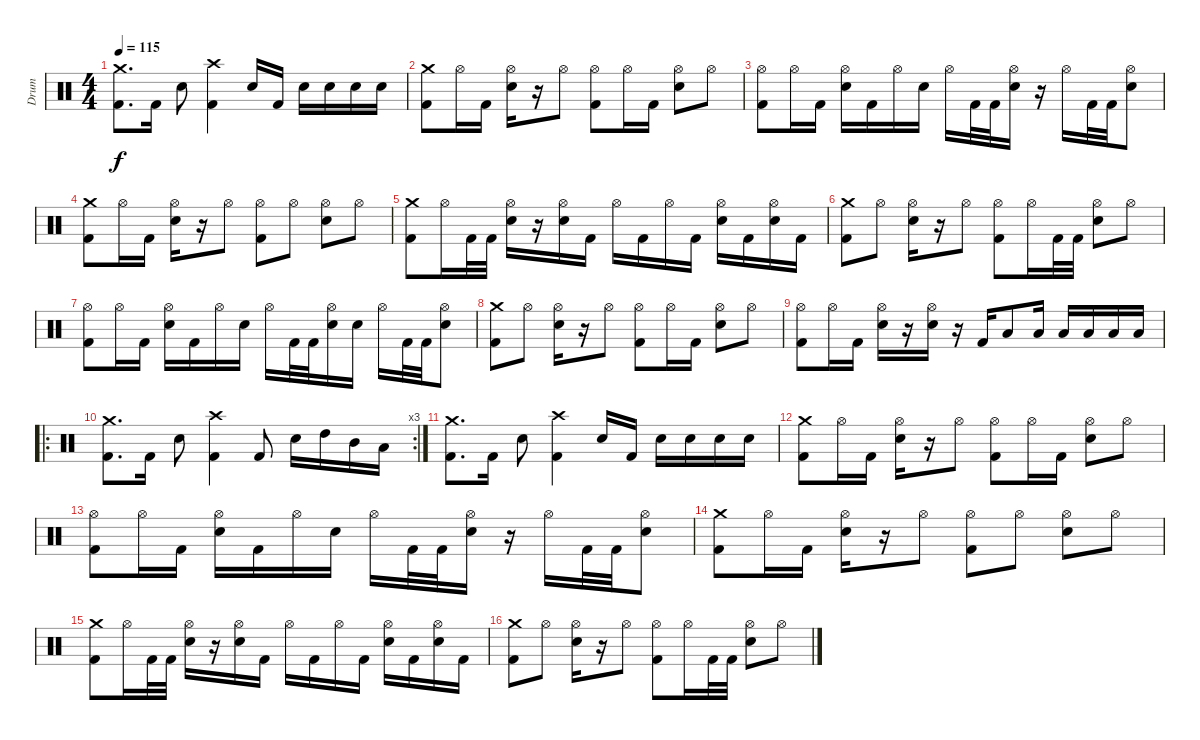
\track ("Drum" "Drum") {instrument percussion}
\staff {score}
\articulation defaults
\ts (4 4)
\tempo 115
\clef neutral
\ks c
("Crash medium (hit)" "Kick (hit) 2").8{d dy f} "Kick (hit) 2".16 "Snare (hit) 2".8 ("Crash high (hit)" "Kick (hit) 2").4 "Electric Snare (hit)".16 "Kick (hit) 2".16 "Electric Snare (hit)".16 "Electric Snare (hit)".16 "Electric Snare (hit)".16 "Electric Snare (hit)".16 |
("Crash medium (hit)" "Kick (hit) 2").8 "Hi-Hat (open)".16 "Kick (hit) 2".16 ("Hi-Hat (open)" "Electric Snare (hit)").16 r.16 "Hi-Hat (open)".8 ("Hi-Hat (open)" "Kick (hit) 2").8 "Hi-Hat (open)".16 "Kick (hit) 2".16 ("Hi-Hat (open)" "Electric Snare (hit)").8 "Hi-Hat (open)".8 |
("Hi-Hat (open)" "Kick (hit) 2").8 "Hi-Hat (open)".16 "Kick (hit) 2".16 ("Hi-Hat (open)" "Electric Snare (hit)").16 "Kick (hit) 2".16 "Hi-Hat (open)".16 "Electric Snare (hit)".16 "Hi-Hat (open)".16 "Kick (hit) 2".32 "Kick (hit) 2".32 ("Hi-Hat (open)" "Electric Snare (hit)").16 r.16 "Hi-Hat (open)".16 "Kick (hit) 2".32 "Kick (hit) 2".32 ("Hi-Hat (open)" "Electric Snare (hit)").8 |
("Crash medium (hit)" "Kick (hit) 2").8 "Hi-Hat (open)".16 "Kick (hit) 2".16 ("Hi-Hat (open)" "Electric Snare (hit)").16 r.16 "Hi-Hat (open)".8 ("Hi-Hat (open)" "Kick (hit) 2").8 "Hi-Hat (open)".8 ("Hi-Hat (open)" "Electric Snare (hit)").8 "Hi-Hat (open)".8 |
("Crash medium (hit)" "Kick (hit) 2").8 "Hi-Hat (open)".16 "Kick (hit) 2".32 "Kick (hit) 2".32 ("Hi-Hat (open)" "Electric Snare (hit)").16 r.16 ("Hi-Hat (open)" "Electric Snare (hit)").16 "Kick (hit) 2".16 "Hi-Hat (open)".16 "Kick (hit) 2".16 "Hi-Hat (open)".16 "Kick (hit) 2".16 ("Hi-Hat (open)" "Electric Snare (hit)").16 "Kick (hit) 2".16 ("Hi-Hat (open)" "Electric Snare (hit)").16 "Kick (hit) 2".16 |
("Crash medium (hit)" "Kick (hit) 2").8 "Hi-Hat (open)".8 ("Hi-Hat (open)" "Electric Snare (hit)").16 r.16 "Hi-Hat (open)".8 ("Hi-Hat (open)" "Kick (hit) 2").8 "Hi-Hat (open)".16 "Kick (hit) 2".32 "Kick (hit) 2".32 ("Hi-Hat (open)" "Electric Snare (hit)").8 "Hi-Hat (open)".8 |
("Hi-Hat (open)" "Kick (hit) 2").8 "Hi-Hat (open)".16 "Kick (hit) 2".16 ("Hi-Hat (open)" "Electric Snare (hit)").16 "Kick (hit) 2".16 "Hi-Hat (open)".16 "Electric Snare (hit)".16 "Hi-Hat (open)".16 "Kick (hit) 2".32 "Kick (hit) 2".32 ("Hi-Hat (open)" "Electric Snare (hit)").16 "Electric Snare (hit)".16 "Hi-Hat (open)".16 "Kick (hit) 2".32 "Kick (hit) 2".32 ("Hi-Hat (open)" "Electric Snare (hit)").8 |
("Crash medium (hit)" "Kick (hit) 2").8 "Hi-Hat (open)".8 ("Hi-Hat (open)" "Electric Snare (hit)").16 r.16 "Hi-Hat (open)".8 ("Hi-Hat (open)" "Kick (hit) 2").8 "Hi-Hat (open)".16 "Kick (hit) 2".16 ("Hi-Hat (open)" "Electric Snare (hit)").8 "Hi-Hat (open)".8 |
("Hi-Hat (open)" "Kick (hit) 2").8 "Hi-Hat (open)".16 "Kick (hit) 2".16 ("Hi-Hat (open)" "Electric Snare (hit)").16 r.16 ("Hi-Hat (open)" "Electric Snare (hit)").16 r.16 "Kick (hit) 2".16 "Low Tom (hit)".8 "Low Tom (hit)".16 "Low Tom (hit)".16 "Low Tom (hit)".16 "Low Tom (hit)".16 "Low Tom (hit)".16 |
\ro
\rc 3
("Crash medium (hit)" "Kick (hit) 2").8{d} "Kick (hit) 2".16 "Snare (hit) 2".8 ("Crash high (hit)" "Kick (hit) 2").4 "Kick (hit) 2".8 "Electric Snare (hit)".16 "High Tom (hit)".16 "Mid Tom (hit)".16 "Low Tom (hit)".16 |
("Crash medium (hit)" "Kick (hit) 2").8{d} "Kick (hit) 2".16 "Snare (hit) 2".8 ("Crash high (hit)" "Kick (hit) 2").4 "Electric Snare (hit)".16 "Kick (hit) 2".16 "Electric Snare (hit)".16 "Electric Snare (hit)".16 "Electric Snare (hit)".16 "Electric Snare (hit)".16 |
("Crash medium (hit)" "Kick (hit) 2").8 "Hi-Hat (open)".16 "Kick (hit) 2".16 ("Hi-Hat (open)" "Electric Snare (hit)").16 r.16 "Hi-Hat (open)".8 ("Hi-Hat (open)" "Kick (hit) 2").8 "Hi-Hat (open)".16 "Kick (hit) 2".16 ("Hi-Hat (open)" "Electric Snare (hit)").8 "Hi-Hat (open)".8 |
("Hi-Hat (open)" "Kick (hit) 2").8 "Hi-Hat (open)".16 "Kick (hit) 2".16 ("Hi-Hat (open)" "Electric Snare (hit)").16 "Kick (hit) 2".16 "Hi-Hat (open)".16 "Electric Snare (hit)".16 "Hi-Hat (open)".16 "Kick (hit) 2".32 "Kick (hit) 2".32 ("Hi-Hat (open)" "Electric Snare (hit)").16 r.16 "Hi-Hat (open)".16 "Kick (hit) 2".32 "Kick (hit) 2".32 ("Hi-Hat (open)" "Electric Snare (hit)").8 |
("Crash medium (hit)" "Kick (hit) 2").8 "Hi-Hat (open)".16 "Kick (hit) 2".16 ("Hi-Hat (open)" "Electric Snare (hit)").16 r.16 "Hi-Hat (open)".8 ("Hi-Hat (open)" "Kick (hit) 2").8 "Hi-Hat (open)".8 ("Hi-Hat (open)" "Electric Snare (hit)").8 "Hi-Hat (open)".8 |
("Crash medium (hit)" "Kick (hit) 2").8 "Hi-Hat (open)".16 "Kick (hit) 2".32 "Kick (hit) 2".32 ("Hi-Hat (open)" "Electric Snare (hit)").16 r.16 ("Hi-Hat (open)" "Electric Snare (hit)").16 "Kick (hit) 2".16 "Hi-Hat (open)".16 "Kick (hit) 2".16 "Hi-Hat (open)".16 "Kick (hit) 2".16 ("Hi-Hat (open)" "Electric Snare (hit)").16 "Kick (hit) 2".16 ("Hi-Hat (open)" "Electric Snare (hit)").16 "Kick (hit) 2".16 |
("Crash medium (hit)" "Kick (hit) 2").8 "Hi-Hat (open)".8 ("Hi-Hat (open)" "Electric Snare (hit)").16 r.16 "Hi-Hat (open)".8 ("Hi-Hat (open)" "Kick (hit) 2").8 "Hi-Hat (open)".16 "Kick (hit) 2".32 "Kick (hit) 2".32 ("Hi-Hat (open)" "Electric Snare (hit)").8 "Hi-Hat (open)".8
